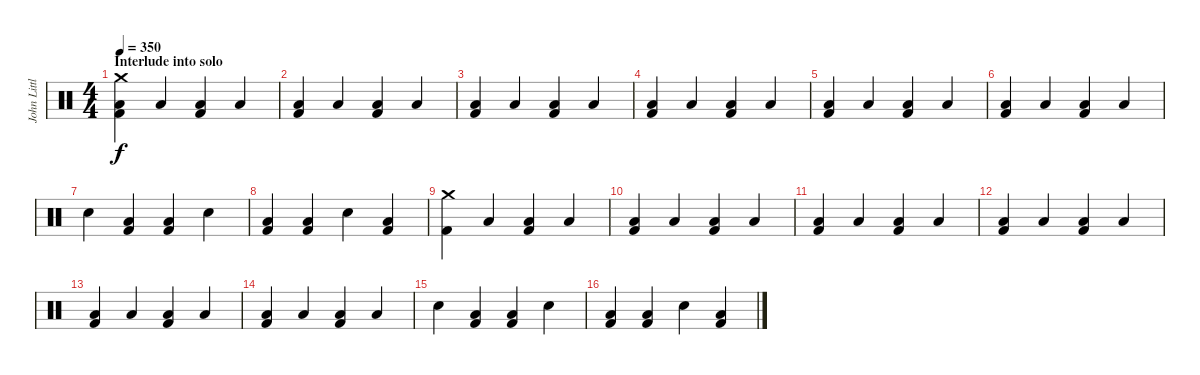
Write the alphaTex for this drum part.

\track ("John Littler - Drums" "John Littl") {instrument percussion}
\staff {score}
\articulation defaults
\ts (4 4)
\section ("" "Interlude into solo")
\tempo 350
\clef neutral
\ks c
("Crash medium (hit)" "Low Floor Tom (hit)" "Kick (hit) 2").4{dy f} "Low Floor Tom (hit)".4 ("Low Floor Tom (hit)" "Kick (hit) 2").4 "Low Floor Tom (hit)".4 |
("Low Floor Tom (hit)" "Kick (hit) 2").4 "Low Floor Tom (hit)".4 ("Low Floor Tom (hit)" "Kick (hit) 2").4 "Low Floor Tom (hit)".4 |
("Low Floor Tom (hit)" "Kick (hit) 2").4 "Low Floor Tom (hit)".4 ("Low Floor Tom (hit)" "Kick (hit) 2").4 "Low Floor Tom (hit)".4 |
("Low Floor Tom (hit)" "Kick (hit) 2").4 "Low Floor Tom (hit)".4 ("Low Floor Tom (hit)" "Kick (hit) 2").4 "Low Floor Tom (hit)".4 |
("Low Floor Tom (hit)" "Kick (hit) 2").4 "Low Floor Tom (hit)".4 ("Low Floor Tom (hit)" "Kick (hit) 2").4 "Low Floor Tom (hit)".4 |
("Low Floor Tom (hit)" "Kick (hit) 2").4 "Low Floor Tom (hit)".4 ("Low Floor Tom (hit)" "Kick (hit) 2").4 "Low Floor Tom (hit)".4 |
"Snare (hit) 2".4 ("Low Floor Tom (hit)" "Kick (hit) 2").4 ("Low Floor Tom (hit)" "Kick (hit) 2").4 "Snare (hit) 2".4 |
("Low Floor Tom (hit)" "Kick (hit) 2").4 ("Low Floor Tom (hit)" "Kick (hit) 2").4 "Snare (hit) 2".4 ("Low Floor Tom (hit)" "Kick (hit) 2").4 |
("Crash medium (hit)" "Kick (hit) 2").4 "Low Floor Tom (hit)".4 ("Low Floor Tom (hit)" "Kick (hit) 2").4 "Low Floor Tom (hit)".4 |
("Low Floor Tom (hit)" "Kick (hit) 2").4 "Low Floor Tom (hit)".4 ("Low Floor Tom (hit)" "Kick (hit) 2").4 "Low Floor Tom (hit)".4 |
("Low Floor Tom (hit)" "Kick (hit) 2").4 "Low Floor Tom (hit)".4 ("Low Floor Tom (hit)" "Kick (hit) 2").4 "Low Floor Tom (hit)".4 |
("Low Floor Tom (hit)" "Kick (hit) 2").4 "Low Floor Tom (hit)".4 ("Low Floor Tom (hit)" "Kick (hit) 2").4 "Low Floor Tom (hit)".4 |
("Low Floor Tom (hit)" "Kick (hit) 2").4 "Low Floor Tom (hit)".4 ("Low Floor Tom (hit)" "Kick (hit) 2").4 "Low Floor Tom (hit)".4 |
("Low Floor Tom (hit)" "Kick (hit) 2").4 "Low Floor Tom (hit)".4 ("Low Floor Tom (hit)" "Kick (hit) 2").4 "Low Floor Tom (hit)".4 |
"Snare (hit) 2".4 ("Low Floor Tom (hit)" "Kick (hit) 2").4 ("Low Floor Tom (hit)" "Kick (hit) 2").4 "Snare (hit) 2".4 |
("Low Floor Tom (hit)" "Kick (hit) 2").4 ("Low Floor Tom (hit)" "Kick (hit) 2").4 "Snare (hit) 2".4 ("Low Floor Tom (hit)" "Kick (hit) 2").4
